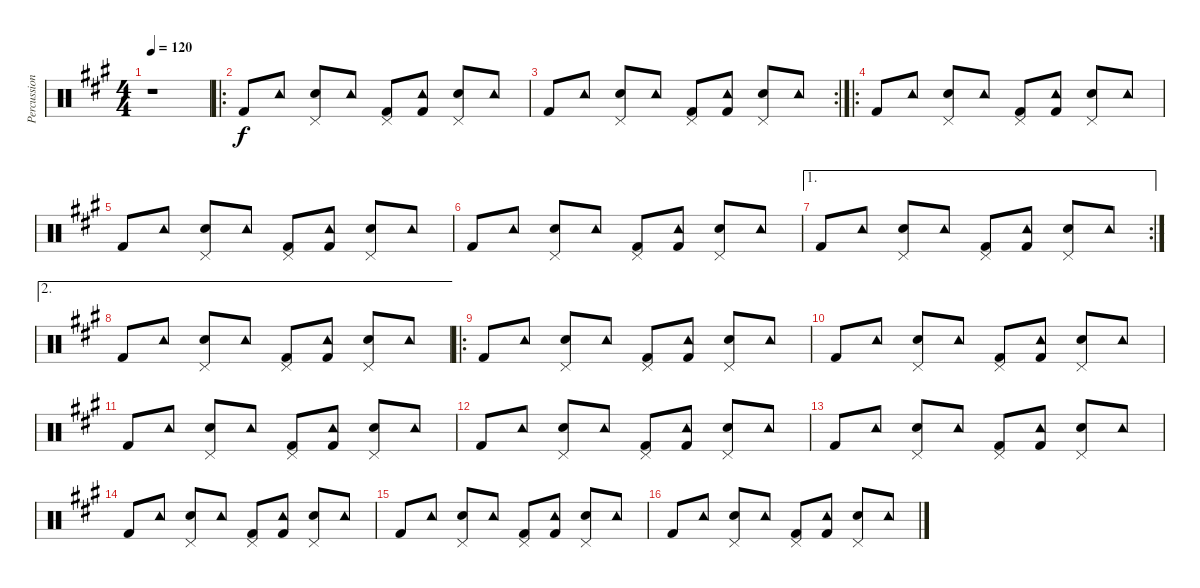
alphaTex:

\track ("Percussion" "Percussion") {instrument percussion}
\staff {score}
\articulation defaults
\ts (4 4)
\tempo 120
\clef neutral
\ks a
r.1{dy f} |
\ro "Kick (hit) 2".8 "Tambourine (hit)".8
("Pedal Hi-Hat (hit)" "Snare (hit) 2").8 "Tambourine (hit)".8 ("Pedal Hi-Hat (hit)" "Kick (hit) 2").8 ("Tambourine (hit)" "Kick (hit) 2").8 ("Pedal Hi-Hat (hit)" "Snare (hit) 2").8 "Tambourine (hit)".8 |
\rc 2 "Kick (hit) 2".8 "Tambourine (hit)".8
("Pedal Hi-Hat (hit)" "Snare (hit) 2").8 "Tambourine (hit)".8 ("Pedal Hi-Hat (hit)" "Kick (hit) 2").8 ("Tambourine (hit)" "Kick (hit) 2").8 ("Pedal Hi-Hat (hit)" "Snare (hit) 2").8 "Tambourine (hit)".8 |
\ro "Kick (hit) 2".8 "Tambourine (hit)".8
("Pedal Hi-Hat (hit)" "Snare (hit) 2").8 "Tambourine (hit)".8 ("Pedal Hi-Hat (hit)" "Kick (hit) 2").8 ("Tambourine (hit)" "Kick (hit) 2").8 ("Pedal Hi-Hat (hit)" "Snare (hit) 2").8 "Tambourine (hit)".8 |
"Kick (hit) 2".8 "Tambourine (hit)".8 ("Pedal Hi-Hat (hit)" "Snare (hit) 2").8 "Tambourine (hit)".8 ("Pedal Hi-Hat (hit)" "Kick (hit) 2").8 ("Tambourine (hit)" "Kick (hit) 2").8 ("Pedal Hi-Hat (hit)" "Snare (hit) 2").8 "Tambourine (hit)".8 |
"Kick (hit) 2".8 "Tambourine (hit)".8 ("Pedal Hi-Hat (hit)" "Snare (hit) 2").8 "Tambourine (hit)".8 ("Pedal Hi-Hat (hit)" "Kick (hit) 2").8 ("Tambourine (hit)" "Kick (hit) 2").8 ("Pedal Hi-Hat (hit)" "Snare (hit) 2").8 "Tambourine (hit)".8 |
\ae 1
\rc 2 "Kick (hit) 2".8 "Tambourine (hit)".8
("Pedal Hi-Hat (hit)" "Snare (hit) 2").8 "Tambourine (hit)".8 ("Pedal Hi-Hat (hit)" "Kick (hit) 2").8 ("Tambourine (hit)" "Kick (hit) 2").8 ("Pedal Hi-Hat (hit)" "Snare (hit) 2").8 "Tambourine (hit)".8 |
\ae 2 "Kick (hit) 2".8 "Tambourine (hit)".8
("Pedal Hi-Hat (hit)" "Snare (hit) 2").8 "Tambourine (hit)".8 ("Pedal Hi-Hat (hit)" "Kick (hit) 2").8 ("Tambourine (hit)" "Kick (hit) 2").8 ("Pedal Hi-Hat (hit)" "Snare (hit) 2").8 "Tambourine (hit)".8 |
\ro "Kick (hit) 2".8 "Tambourine (hit)".8
("Pedal Hi-Hat (hit)" "Snare (hit) 2").8 "Tambourine (hit)".8 ("Pedal Hi-Hat (hit)" "Kick (hit) 2").8 ("Tambourine (hit)" "Kick (hit) 2").8 ("Pedal Hi-Hat (hit)" "Snare (hit) 2").8 "Tambourine (hit)".8 |
"Kick (hit) 2".8 "Tambourine (hit)".8 ("Pedal Hi-Hat (hit)" "Snare (hit) 2").8 "Tambourine (hit)".8 ("Pedal Hi-Hat (hit)" "Kick (hit) 2").8 ("Tambourine (hit)" "Kick (hit) 2").8 ("Pedal Hi-Hat (hit)" "Snare (hit) 2").8 "Tambourine (hit)".8 |
"Kick (hit) 2".8 "Tambourine (hit)".8 ("Pedal Hi-Hat (hit)" "Snare (hit) 2").8 "Tambourine (hit)".8 ("Pedal Hi-Hat (hit)" "Kick (hit) 2").8 ("Tambourine (hit)" "Kick (hit) 2").8 ("Pedal Hi-Hat (hit)" "Snare (hit) 2").8 "Tambourine (hit)".8 |
"Kick (hit) 2".8 "Tambourine (hit)".8 ("Pedal Hi-Hat (hit)" "Snare (hit) 2").8 "Tambourine (hit)".8 ("Pedal Hi-Hat (hit)" "Kick (hit) 2").8 ("Tambourine (hit)" "Kick (hit) 2").8 ("Pedal Hi-Hat (hit)" "Snare (hit) 2").8 "Tambourine (hit)".8 |
"Kick (hit) 2".8 "Tambourine (hit)".8 ("Pedal Hi-Hat (hit)" "Snare (hit) 2").8 "Tambourine (hit)".8 ("Pedal Hi-Hat (hit)" "Kick (hit) 2").8 ("Tambourine (hit)" "Kick (hit) 2").8 ("Pedal Hi-Hat (hit)" "Snare (hit) 2").8 "Tambourine (hit)".8 |
"Kick (hit) 2".8 "Tambourine (hit)".8 ("Pedal Hi-Hat (hit)" "Snare (hit) 2").8 "Tambourine (hit)".8 ("Pedal Hi-Hat (hit)" "Kick (hit) 2").8 ("Tambourine (hit)" "Kick (hit) 2").8 ("Pedal Hi-Hat (hit)" "Snare (hit) 2").8 "Tambourine (hit)".8 |
"Kick (hit) 2".8 "Tambourine (hit)".8 ("Pedal Hi-Hat (hit)" "Snare (hit) 2").8 "Tambourine (hit)".8 ("Pedal Hi-Hat (hit)" "Kick (hit) 2").8 ("Tambourine (hit)" "Kick (hit) 2").8 ("Pedal Hi-Hat (hit)" "Snare (hit) 2").8 "Tambourine (hit)".8 |
"Kick (hit) 2".8 "Tambourine (hit)".8 ("Pedal Hi-Hat (hit)" "Snare (hit) 2").8 "Tambourine (hit)".8 ("Pedal Hi-Hat (hit)" "Kick (hit) 2").8 ("Tambourine (hit)" "Kick (hit) 2").8 ("Pedal Hi-Hat (hit)" "Snare (hit) 2").8 "Tambourine (hit)".8
